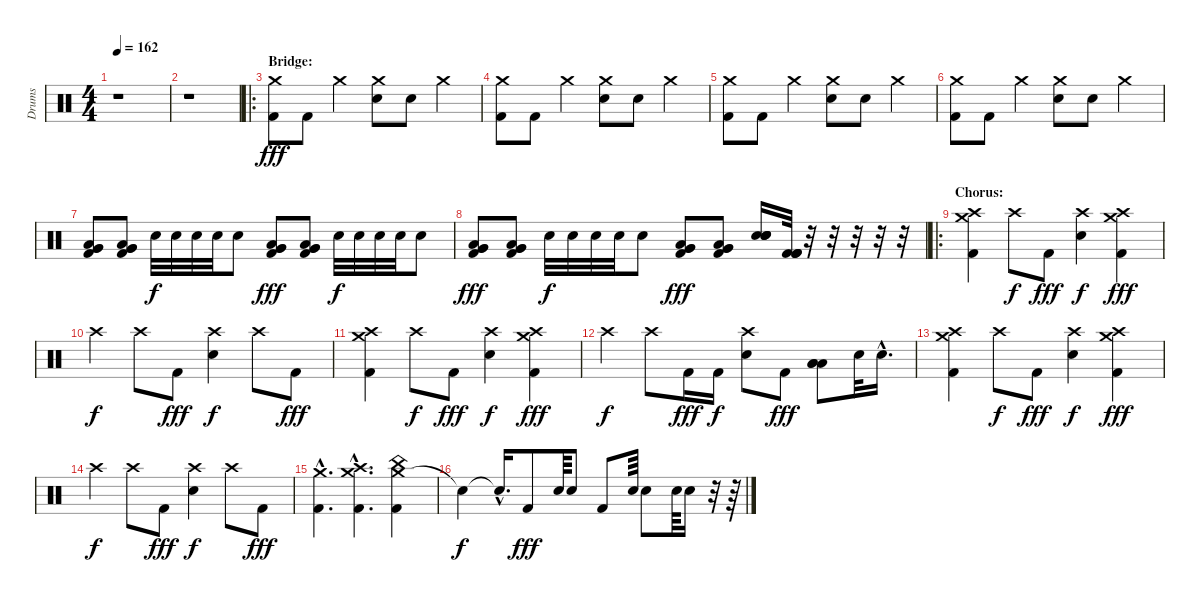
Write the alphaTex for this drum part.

\track ("Drums" "Drums") {instrument percussion}
\staff {score}
\articulation defaults
\ts (4 4)
\tempo 162
\clef neutral
\ks c
r.1{dy fff} |
r.1 |
\ro
\section ("" "Bridge:")
("Crash medium (hit)" "Kick (hit) 2").8 "Kick (hit) 2".8 "Crash medium (hit)".4 ("Crash medium (hit)" "Snare (hit) 2").8 "Snare (hit) 2".8 "Crash medium (hit)".4 |
("Crash medium (hit)" "Kick (hit) 2").8 "Kick (hit) 2".8 "Crash medium (hit)".4 ("Crash medium (hit)" "Snare (hit) 2").8 "Snare (hit) 2".8 "Crash medium (hit)".4 |
("Crash medium (hit)" "Kick (hit) 2").8 "Kick (hit) 2".8 "Crash medium (hit)".4 ("Crash medium (hit)" "Snare (hit) 2").8 "Snare (hit) 2".8 "Crash medium (hit)".4 |
("Crash medium (hit)" "Kick (hit) 2").8 "Kick (hit) 2".8 "Crash medium (hit)".4 ("Crash medium (hit)" "Snare (hit) 2").8 "Snare (hit) 2".8 "Crash medium (hit)".4 |
("Very Low Tom (hit)" "Very Low Tom (hit)" "Low Floor Tom (hit)" "Kick (hit) 2").8 ("Very Low Tom (hit)" "Very Low Tom (hit)" "Low Floor Tom (hit)" "Kick (hit) 2").8 "Snare (hit) 2".32{dy f} "Snare (hit) 2".32 "Snare (hit) 2".32 "Snare (hit) 2".32 "Snare (hit) 2".8 ("Very Low Tom (hit)" "Very Low Tom (hit)" "Low Floor Tom (hit)" "Kick (hit) 2").8{dy fff} ("Very Low Tom (hit)" "Very Low Tom (hit)" "Low Floor Tom (hit)" "Kick (hit) 2").8 "Electric Snare (hit)".32{dy f} "Electric Snare (hit)".32 "Electric Snare (hit)".32 "Electric Snare (hit)".32 "Electric Snare (hit)".8 |
("Very Low Tom (hit)" "Very Low Tom (hit)" "Low Floor Tom (hit)" "Kick (hit) 2").8{dy fff} ("Very Low Tom (hit)" "Very Low Tom (hit)" "Low Floor Tom (hit)" "Kick (hit) 2").8 "Snare (hit) 2".32{dy f} "Snare (hit) 2".32 "Snare (hit) 2".32 "Snare (hit) 2".32 "Snare (hit) 2".8 ("Very Low Tom (hit)" "Very Low Tom (hit)" "Low Floor Tom (hit)" "Kick (hit) 2").8{dy fff} ("Very Low Tom (hit)" "Very Low Tom (hit)" "Low Floor Tom (hit)" "Kick (hit) 2").8 ("Snare (hit) 2" "Snare (hit) 2" "Snare (hit) 2" "Snare (hit) 2").16 ("Kick (hit) 2" "Kick (hit) 2" "Kick (hit) 2" "Kick (hit) 2").32 r.32 r.32 r.32 r.32 r.32 |
\ro
\section ("" "Chorus:")
("Crash high (hit)" "Crash medium (hit)" "Kick (hit) 2").4 "Crash high (hit)".8{dy f} "Kick (hit) 2".8{dy fff} ("Crash high (hit)" "Snare (hit) 2").4{dy f} ("Crash medium (hit)" "Crash high (hit)" "Kick (hit) 2").4{dy fff} |
"Crash high (hit)".4{dy f} "Crash high (hit)".8 "Kick (hit) 2".8{dy fff} ("Crash high (hit)" "Snare (hit) 2").4{dy f} "Crash high (hit)".8 "Kick (hit) 2".8{dy fff} |
("Crash high (hit)" "Crash medium (hit)" "Kick (hit) 2").4 "Crash high (hit)".8{dy f} "Kick (hit) 2".8{dy fff} ("Crash high (hit)" "Snare (hit) 2").4{dy f} ("Crash medium (hit)" "Crash high (hit)" "Kick (hit) 2").4{dy fff} |
"Crash high (hit)".4{dy f} "Crash high (hit)".8 "Kick (hit) 2".16{dy fff} "Kick (hit) 2".16{dy f} ("Crash high (hit)" "Snare (hit) 2").8 "Kick (hit) 2".8{dy fff} ("Low Floor Tom (hit)" "Low Floor Tom (hit)" "Low Tom (hit)").8 "Snare (hit) 2".32 "Snare (hit) 2"{hac}.16{d} |
("Crash high (hit)" "Crash medium (hit)" "Kick (hit) 2").4 "Crash high (hit)".8{dy f} "Kick (hit) 2".8{dy fff} ("Crash high (hit)" "Snare (hit) 2").4{dy f} ("Crash medium (hit)" "Crash high (hit)" "Kick (hit) 2").4{dy fff} |
"Crash high (hit)".4{dy f} "Crash high (hit)".8 "Kick (hit) 2".8{dy fff} ("Crash high (hit)" "Snare (hit) 2").4{dy f} "Crash high (hit)".8 "Kick (hit) 2".8{dy fff} |
("Crash medium (hit)"{hac} "Kick (hit) 2"{hac}).4{d} ("Crash high (hit)"{hac} "Crash medium (hit)"{hac} "Kick (hit) 2"{hac}).4{d} ("Crash medium (hit)" "China (hit)" "Kick (hit) 2").4 |
"Snare (hit)"{t}.4{dy f} "Snare (hit)"{hac t}.16{d} "Kick (hit) 2".8{dy fff} "Snare (hit) 2".64 "Snare (hit) 2".8 "Kick (hit) 2".8 "Snare (hit) 2".64 "Snare (hit) 2".8 "Snare (hit) 2".64 "Snare (hit) 2".16 r.32 r.64
